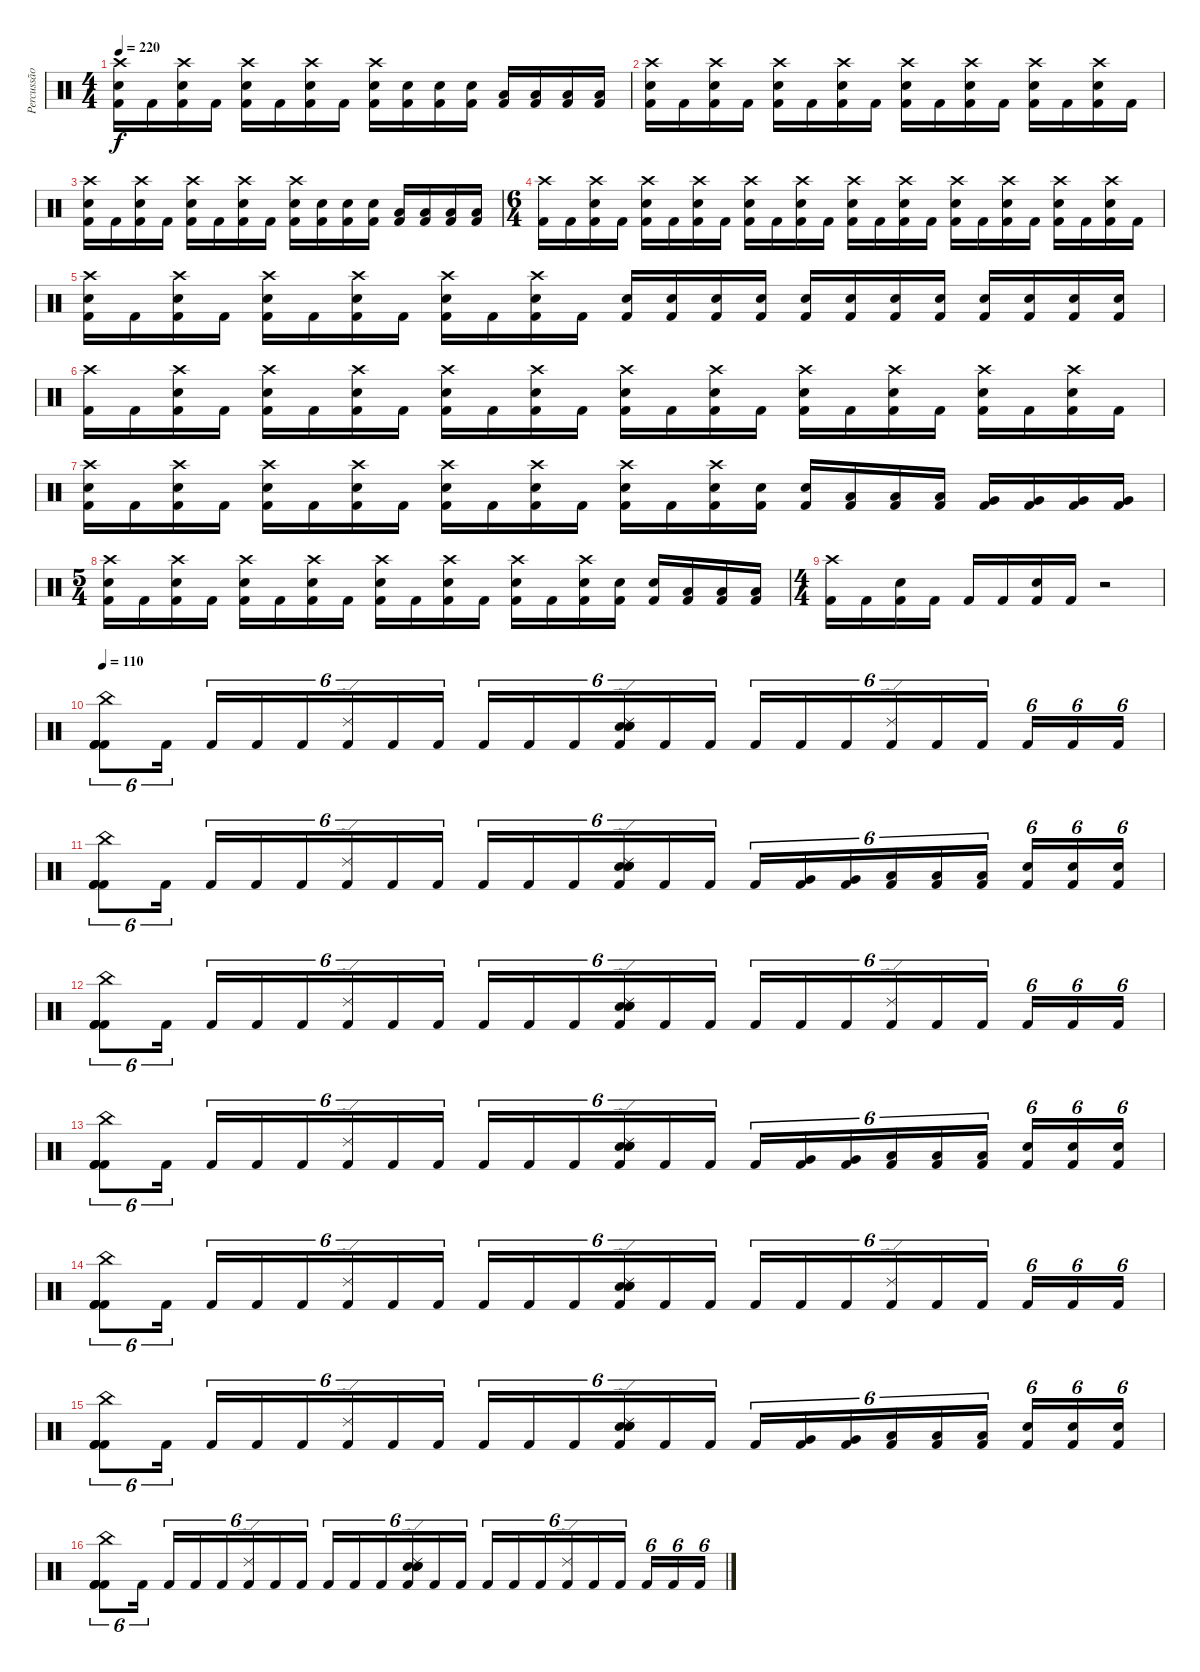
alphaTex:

\track ("Percussão" "Percussão") {instrument percussion}
\staff {score}
\articulation defaults
\ts (4 4)
\tempo 220
\clef neutral
\ks c
("Crash high (hit)" "Electric Snare (hit)" "Kick (hit) 2").16{dy f} "Kick (hit) 2".16 ("Crash high (hit)" "Electric Snare (hit)" "Kick (hit) 2").16 "Kick (hit) 2".16 ("Crash high (hit)" "Electric Snare (hit)" "Kick (hit) 2").16 "Kick (hit) 2".16 ("Crash high (hit)" "Electric Snare (hit)" "Kick (hit) 2").16 "Kick (hit) 2".16 ("Crash high (hit)" "Electric Snare (hit)" "Kick (hit) 2").16 ("Electric Snare (hit)" "Kick (hit) 2").16 ("Electric Snare (hit)" "Kick (hit) 2").16 ("Electric Snare (hit)" "Kick (hit) 2").16 ("Low Tom (hit)" "Kick (hit) 2").16 ("Low Tom (hit)" "Kick (hit) 2").16 ("Low Tom (hit)" "Kick (hit) 2").16 ("Low Tom (hit)" "Kick (hit) 2").16 |
("Crash high (hit)" "Electric Snare (hit)" "Kick (hit) 2").16 "Kick (hit) 2".16 ("Crash high (hit)" "Electric Snare (hit)" "Kick (hit) 2").16 "Kick (hit) 2".16 ("Crash high (hit)" "Electric Snare (hit)" "Kick (hit) 2").16 "Kick (hit) 2".16 ("Crash high (hit)" "Electric Snare (hit)" "Kick (hit) 2").16 "Kick (hit) 2".16 ("Crash high (hit)" "Electric Snare (hit)" "Kick (hit) 2").16 "Kick (hit) 2".16 ("Crash high (hit)" "Electric Snare (hit)" "Kick (hit) 2").16 "Kick (hit) 2".16 ("Crash high (hit)" "Electric Snare (hit)" "Kick (hit) 2").16 "Kick (hit) 2".16 ("Crash high (hit)" "Electric Snare (hit)" "Kick (hit) 2").16 "Kick (hit) 2".16 |
("Crash high (hit)" "Electric Snare (hit)" "Kick (hit) 2").16 "Kick (hit) 2".16 ("Crash high (hit)" "Electric Snare (hit)" "Kick (hit) 2").16 "Kick (hit) 2".16 ("Crash high (hit)" "Electric Snare (hit)" "Kick (hit) 2").16 "Kick (hit) 2".16 ("Crash high (hit)" "Electric Snare (hit)" "Kick (hit) 2").16 "Kick (hit) 2".16 ("Crash high (hit)" "Electric Snare (hit)" "Kick (hit) 2").16 ("Electric Snare (hit)" "Kick (hit) 2").16 ("Electric Snare (hit)" "Kick (hit) 2").16 ("Electric Snare (hit)" "Kick (hit) 2").16 ("Low Tom (hit)" "Kick (hit) 2").16 ("Low Tom (hit)" "Kick (hit) 2").16 ("Low Tom (hit)" "Kick (hit) 2").16 ("Low Tom (hit)" "Kick (hit) 2").16 |
\ts (6 4)
("Crash high (hit)" "Kick (hit) 2").16 "Kick (hit) 2".16 ("Crash high (hit)" "Electric Snare (hit)" "Kick (hit) 2").16 "Kick (hit) 2".16 ("Crash high (hit)" "Electric Snare (hit)" "Kick (hit) 2").16 "Kick (hit) 2".16 ("Crash high (hit)" "Electric Snare (hit)" "Kick (hit) 2").16 "Kick (hit) 2".16 ("Crash high (hit)" "Electric Snare (hit)" "Kick (hit) 2").16 "Kick (hit) 2".16 ("Crash high (hit)" "Electric Snare (hit)" "Kick (hit) 2").16 "Kick (hit) 2".16 ("Crash high (hit)" "Electric Snare (hit)" "Kick (hit) 2").16 "Kick (hit) 2".16 ("Crash high (hit)" "Electric Snare (hit)" "Kick (hit) 2").16 "Kick (hit) 2".16 ("Crash high (hit)" "Electric Snare (hit)" "Kick (hit) 2").16 "Kick (hit) 2".16 ("Crash high (hit)" "Electric Snare (hit)" "Kick (hit) 2").16 "Kick (hit) 2".16 ("Crash high (hit)" "Electric Snare (hit)" "Kick (hit) 2").16 "Kick (hit) 2".16 ("Crash high (hit)" "Electric Snare (hit)" "Kick (hit) 2").16 "Kick (hit) 2".16 |
("Crash high (hit)" "Electric Snare (hit)" "Kick (hit) 2").16 "Kick (hit) 2".16 ("Crash high (hit)" "Electric Snare (hit)" "Kick (hit) 2").16 "Kick (hit) 2".16 ("Crash high (hit)" "Electric Snare (hit)" "Kick (hit) 2").16 "Kick (hit) 2".16 ("Crash high (hit)" "Electric Snare (hit)" "Kick (hit) 2").16 "Kick (hit) 2".16 ("Crash high (hit)" "Electric Snare (hit)" "Kick (hit) 2").16 "Kick (hit) 2".16 ("Crash high (hit)" "Electric Snare (hit)" "Kick (hit) 2").16 "Kick (hit) 2".16 ("Electric Snare (hit)" "Kick (hit) 2").16 ("Electric Snare (hit)" "Kick (hit) 2").16 ("Electric Snare (hit)" "Kick (hit) 2").16 ("Electric Snare (hit)" "Kick (hit) 2").16 ("Electric Snare (hit)" "Kick (hit) 2").16 ("Electric Snare (hit)" "Kick (hit) 2").16 ("Electric Snare (hit)" "Kick (hit) 2").16 ("Electric Snare (hit)" "Kick (hit) 2").16 ("Electric Snare (hit)" "Kick (hit) 2").16 ("Electric Snare (hit)" "Kick (hit) 2").16 ("Electric Snare (hit)" "Kick (hit) 2").16 ("Electric Snare (hit)" "Kick (hit) 2").16 |
("Crash high (hit)" "Kick (hit) 2").16 "Kick (hit) 2".16 ("Crash high (hit)" "Electric Snare (hit)" "Kick (hit) 2").16 "Kick (hit) 2".16 ("Crash high (hit)" "Electric Snare (hit)" "Kick (hit) 2").16 "Kick (hit) 2".16 ("Crash high (hit)" "Electric Snare (hit)" "Kick (hit) 2").16 "Kick (hit) 2".16 ("Crash high (hit)" "Electric Snare (hit)" "Kick (hit) 2").16 "Kick (hit) 2".16 ("Crash high (hit)" "Electric Snare (hit)" "Kick (hit) 2").16 "Kick (hit) 2".16 ("Crash high (hit)" "Electric Snare (hit)" "Kick (hit) 2").16 "Kick (hit) 2".16 ("Crash high (hit)" "Electric Snare (hit)" "Kick (hit) 2").16 "Kick (hit) 2".16 ("Crash high (hit)" "Electric Snare (hit)" "Kick (hit) 2").16 "Kick (hit) 2".16 ("Crash high (hit)" "Electric Snare (hit)" "Kick (hit) 2").16 "Kick (hit) 2".16 ("Crash high (hit)" "Electric Snare (hit)" "Kick (hit) 2").16 "Kick (hit) 2".16 ("Crash high (hit)" "Electric Snare (hit)" "Kick (hit) 2").16 "Kick (hit) 2".16 |
("Crash high (hit)" "Electric Snare (hit)" "Kick (hit) 2").16 "Kick (hit) 2".16 ("Crash high (hit)" "Electric Snare (hit)" "Kick (hit) 2").16 "Kick (hit) 2".16 ("Crash high (hit)" "Electric Snare (hit)" "Kick (hit) 2").16 "Kick (hit) 2".16 ("Crash high (hit)" "Electric Snare (hit)" "Kick (hit) 2").16 "Kick (hit) 2".16 ("Crash high (hit)" "Electric Snare (hit)" "Kick (hit) 2").16 "Kick (hit) 2".16 ("Crash high (hit)" "Electric Snare (hit)" "Kick (hit) 2").16 "Kick (hit) 2".16 ("Crash high (hit)" "Electric Snare (hit)" "Kick (hit) 2").16 "Kick (hit) 2".16 ("Crash high (hit)" "Electric Snare (hit)" "Kick (hit) 2").16 ("Electric Snare (hit)" "Kick (hit) 2").16 ("Electric Snare (hit)" "Kick (hit) 2").16 ("Low Tom (hit)" "Kick (hit) 2").16 ("Low Tom (hit)" "Kick (hit) 2").16 ("Low Tom (hit)" "Kick (hit) 2").16 ("Very Low Tom (hit)" "Kick (hit) 2").16 ("Very Low Tom (hit)" "Kick (hit) 2").16 ("Very Low Tom (hit)" "Kick (hit) 2").16 ("Very Low Tom (hit)" "Kick (hit) 2").16 |
\ts (5 4)
("Crash high (hit)" "Electric Snare (hit)" "Kick (hit) 2").16 "Kick (hit) 2".16 ("Crash high (hit)" "Electric Snare (hit)" "Kick (hit) 2").16 "Kick (hit) 2".16 ("Crash high (hit)" "Electric Snare (hit)" "Kick (hit) 2").16 "Kick (hit) 2".16 ("Crash high (hit)" "Electric Snare (hit)" "Kick (hit) 2").16 "Kick (hit) 2".16 ("Crash high (hit)" "Electric Snare (hit)" "Kick (hit) 2").16 "Kick (hit) 2".16 ("Crash high (hit)" "Electric Snare (hit)" "Kick (hit) 2").16 "Kick (hit) 2".16 ("Crash high (hit)" "Electric Snare (hit)" "Kick (hit) 2").16 "Kick (hit) 2".16 ("Crash high (hit)" "Electric Snare (hit)" "Kick (hit) 2").16 ("Electric Snare (hit)" "Kick (hit) 2").16 ("Electric Snare (hit)" "Kick (hit) 2").16 ("Low Tom (hit)" "Kick (hit) 2").16 ("Low Tom (hit)" "Kick (hit) 2").16 ("Low Tom (hit)" "Kick (hit) 2").16 |
\ts (4 4)
("Crash high (hit)" "Kick (hit) 2").16 "Kick (hit) 2".16 ("Electric Snare (hit)" "Kick (hit) 2").16 "Kick (hit) 2".16 "Kick (hit) 2".16 "Kick (hit) 2".16 ("Electric Snare (hit)" "Kick (hit) 2").16 "Kick (hit) 2".16 r.2 |
\tempo 110
("China (hit)" "Kick (hit) 2" "Kick (hit) 2" "Kick (hit) 2").8{tu (6 4)} "Kick (hit) 2".16{tu (6 4) beam splitsecondary} "Kick (hit) 2".16{tu (6 4)} "Kick (hit) 2".16{tu (6 4)} "Kick (hit) 2".16{tu (6 4)} ("Ride (edge) 2" "Kick (hit) 2").16{tu (6 4)} "Kick (hit) 2".16{tu (6 4)} "Kick (hit) 2".16{tu (6 4) beam splitsecondary} "Kick (hit) 2".16{tu (6 4)} "Kick (hit) 2".16{tu (6 4)} "Kick (hit) 2".16{tu (6 4)} ("Ride (edge) 2" "Electric Snare (hit)" "Electric Snare (hit)" "Electric Snare (hit)" "Kick (hit) 2").16{tu (6 4)} "Kick (hit) 2".16{tu (6 4)} "Kick (hit) 2".16{tu (6 4) beam splitsecondary} "Kick (hit) 2".16{tu (6 4)} "Kick (hit) 2".16{tu (6 4)} "Kick (hit) 2".16{tu (6 4)} ("Ride (edge) 2" "Kick (hit) 2").16{tu (6 4)} "Kick (hit) 2".16{tu (6 4)} "Kick (hit) 2".16{tu (6 4) beam splitsecondary} "Kick (hit) 2".16{tu (6 4)} "Kick (hit) 2".16{tu (6 4)} "Kick (hit) 2".16{tu (6 4)} |
("China (hit)" "Kick (hit) 2" "Kick (hit) 2" "Kick (hit) 2").8{tu (6 4)} "Kick (hit) 2".16{tu (6 4) beam splitsecondary} "Kick (hit) 2".16{tu (6 4)} "Kick (hit) 2".16{tu (6 4)} "Kick (hit) 2".16{tu (6 4)} ("Ride (edge) 2" "Kick (hit) 2").16{tu (6 4)} "Kick (hit) 2".16{tu (6 4)} "Kick (hit) 2".16{tu (6 4) beam splitsecondary} "Kick (hit) 2".16{tu (6 4)} "Kick (hit) 2".16{tu (6 4)} "Kick (hit) 2".16{tu (6 4)} ("Ride (edge) 2" "Electric Snare (hit)" "Electric Snare (hit)" "Electric Snare (hit)" "Kick (hit) 2").16{tu (6 4)} "Kick (hit) 2".16{tu (6 4)} "Kick (hit) 2".16{tu (6 4) beam splitsecondary} "Kick (hit) 2".16{tu (6 4)} ("Very Low Tom (hit)" "Kick (hit) 2").16{tu (6 4)} ("Very Low Tom (hit)" "Kick (hit) 2").16{tu (6 4)} ("Low Tom (hit)" "Kick (hit) 2").16{tu (6 4)} ("Low Tom (hit)" "Kick (hit) 2").16{tu (6 4)} ("Low Tom (hit)" "Kick (hit) 2").16{tu (6 4) beam splitsecondary} ("Electric Snare (hit)" "Kick (hit) 2").16{tu (6 4)} ("Electric Snare (hit)" "Kick (hit) 2").16{tu (6 4)} ("Electric Snare (hit)" "Kick (hit) 2").16{tu (6 4)} |
("China (hit)" "Kick (hit) 2" "Kick (hit) 2" "Kick (hit) 2").8{tu (6 4)} "Kick (hit) 2".16{tu (6 4) beam splitsecondary} "Kick (hit) 2".16{tu (6 4)} "Kick (hit) 2".16{tu (6 4)} "Kick (hit) 2".16{tu (6 4)} ("Ride (edge) 2" "Kick (hit) 2").16{tu (6 4)} "Kick (hit) 2".16{tu (6 4)} "Kick (hit) 2".16{tu (6 4) beam splitsecondary} "Kick (hit) 2".16{tu (6 4)} "Kick (hit) 2".16{tu (6 4)} "Kick (hit) 2".16{tu (6 4)} ("Ride (edge) 2" "Electric Snare (hit)" "Electric Snare (hit)" "Electric Snare (hit)" "Kick (hit) 2").16{tu (6 4)} "Kick (hit) 2".16{tu (6 4)} "Kick (hit) 2".16{tu (6 4) beam splitsecondary} "Kick (hit) 2".16{tu (6 4)} "Kick (hit) 2".16{tu (6 4)} "Kick (hit) 2".16{tu (6 4)} ("Ride (edge) 2" "Kick (hit) 2").16{tu (6 4)} "Kick (hit) 2".16{tu (6 4)} "Kick (hit) 2".16{tu (6 4) beam splitsecondary} "Kick (hit) 2".16{tu (6 4)} "Kick (hit) 2".16{tu (6 4)} "Kick (hit) 2".16{tu (6 4)} |
("China (hit)" "Kick (hit) 2" "Kick (hit) 2" "Kick (hit) 2").8{tu (6 4)} "Kick (hit) 2".16{tu (6 4) beam splitsecondary} "Kick (hit) 2".16{tu (6 4)} "Kick (hit) 2".16{tu (6 4)} "Kick (hit) 2".16{tu (6 4)} ("Ride (edge) 2" "Kick (hit) 2").16{tu (6 4)} "Kick (hit) 2".16{tu (6 4)} "Kick (hit) 2".16{tu (6 4) beam splitsecondary} "Kick (hit) 2".16{tu (6 4)} "Kick (hit) 2".16{tu (6 4)} "Kick (hit) 2".16{tu (6 4)} ("Ride (edge) 2" "Electric Snare (hit)" "Electric Snare (hit)" "Electric Snare (hit)" "Kick (hit) 2").16{tu (6 4)} "Kick (hit) 2".16{tu (6 4)} "Kick (hit) 2".16{tu (6 4) beam splitsecondary} "Kick (hit) 2".16{tu (6 4)} ("Very Low Tom (hit)" "Kick (hit) 2").16{tu (6 4)} ("Very Low Tom (hit)" "Kick (hit) 2").16{tu (6 4)} ("Low Tom (hit)" "Kick (hit) 2").16{tu (6 4)} ("Low Tom (hit)" "Kick (hit) 2").16{tu (6 4)} ("Low Tom (hit)" "Kick (hit) 2").16{tu (6 4) beam splitsecondary} ("Electric Snare (hit)" "Kick (hit) 2").16{tu (6 4)} ("Electric Snare (hit)" "Kick (hit) 2").16{tu (6 4)} ("Electric Snare (hit)" "Kick (hit) 2").16{tu (6 4)} |
("China (hit)" "Kick (hit) 2" "Kick (hit) 2" "Kick (hit) 2").8{tu (6 4)} "Kick (hit) 2".16{tu (6 4) beam splitsecondary} "Kick (hit) 2".16{tu (6 4)} "Kick (hit) 2".16{tu (6 4)} "Kick (hit) 2".16{tu (6 4)} ("Ride (edge) 2" "Kick (hit) 2").16{tu (6 4)} "Kick (hit) 2".16{tu (6 4)} "Kick (hit) 2".16{tu (6 4) beam splitsecondary} "Kick (hit) 2".16{tu (6 4)} "Kick (hit) 2".16{tu (6 4)} "Kick (hit) 2".16{tu (6 4)} ("Ride (edge) 2" "Electric Snare (hit)" "Electric Snare (hit)" "Electric Snare (hit)" "Kick (hit) 2").16{tu (6 4)} "Kick (hit) 2".16{tu (6 4)} "Kick (hit) 2".16{tu (6 4) beam splitsecondary} "Kick (hit) 2".16{tu (6 4)} "Kick (hit) 2".16{tu (6 4)} "Kick (hit) 2".16{tu (6 4)} ("Ride (edge) 2" "Kick (hit) 2").16{tu (6 4)} "Kick (hit) 2".16{tu (6 4)} "Kick (hit) 2".16{tu (6 4) beam splitsecondary} "Kick (hit) 2".16{tu (6 4)} "Kick (hit) 2".16{tu (6 4)} "Kick (hit) 2".16{tu (6 4)} |
("China (hit)" "Kick (hit) 2" "Kick (hit) 2" "Kick (hit) 2").8{tu (6 4)} "Kick (hit) 2".16{tu (6 4) beam splitsecondary} "Kick (hit) 2".16{tu (6 4)} "Kick (hit) 2".16{tu (6 4)} "Kick (hit) 2".16{tu (6 4)} ("Ride (edge) 2" "Kick (hit) 2").16{tu (6 4)} "Kick (hit) 2".16{tu (6 4)} "Kick (hit) 2".16{tu (6 4) beam splitsecondary} "Kick (hit) 2".16{tu (6 4)} "Kick (hit) 2".16{tu (6 4)} "Kick (hit) 2".16{tu (6 4)} ("Ride (edge) 2" "Electric Snare (hit)" "Electric Snare (hit)" "Electric Snare (hit)" "Kick (hit) 2").16{tu (6 4)} "Kick (hit) 2".16{tu (6 4)} "Kick (hit) 2".16{tu (6 4) beam splitsecondary} "Kick (hit) 2".16{tu (6 4)} ("Very Low Tom (hit)" "Kick (hit) 2").16{tu (6 4)} ("Very Low Tom (hit)" "Kick (hit) 2").16{tu (6 4)} ("Low Tom (hit)" "Kick (hit) 2").16{tu (6 4)} ("Low Tom (hit)" "Kick (hit) 2").16{tu (6 4)} ("Low Tom (hit)" "Kick (hit) 2").16{tu (6 4) beam splitsecondary} ("Electric Snare (hit)" "Kick (hit) 2").16{tu (6 4)} ("Electric Snare (hit)" "Kick (hit) 2").16{tu (6 4)} ("Electric Snare (hit)" "Kick (hit) 2").16{tu (6 4)} |
("China (hit)" "Kick (hit) 2" "Kick (hit) 2" "Kick (hit) 2").8{tu (6 4)} "Kick (hit) 2".16{tu (6 4) beam splitsecondary} "Kick (hit) 2".16{tu (6 4)} "Kick (hit) 2".16{tu (6 4)} "Kick (hit) 2".16{tu (6 4)} ("Ride (edge) 2" "Kick (hit) 2").16{tu (6 4)} "Kick (hit) 2".16{tu (6 4)} "Kick (hit) 2".16{tu (6 4) beam splitsecondary} "Kick (hit) 2".16{tu (6 4)} "Kick (hit) 2".16{tu (6 4)} "Kick (hit) 2".16{tu (6 4)} ("Ride (edge) 2" "Electric Snare (hit)" "Electric Snare (hit)" "Electric Snare (hit)" "Kick (hit) 2").16{tu (6 4)} "Kick (hit) 2".16{tu (6 4)} "Kick (hit) 2".16{tu (6 4) beam splitsecondary} "Kick (hit) 2".16{tu (6 4)} "Kick (hit) 2".16{tu (6 4)} "Kick (hit) 2".16{tu (6 4)} ("Ride (edge) 2" "Kick (hit) 2").16{tu (6 4)} "Kick (hit) 2".16{tu (6 4)} "Kick (hit) 2".16{tu (6 4) beam splitsecondary} "Kick (hit) 2".16{tu (6 4)} "Kick (hit) 2".16{tu (6 4)} "Kick (hit) 2".16{tu (6 4)}
